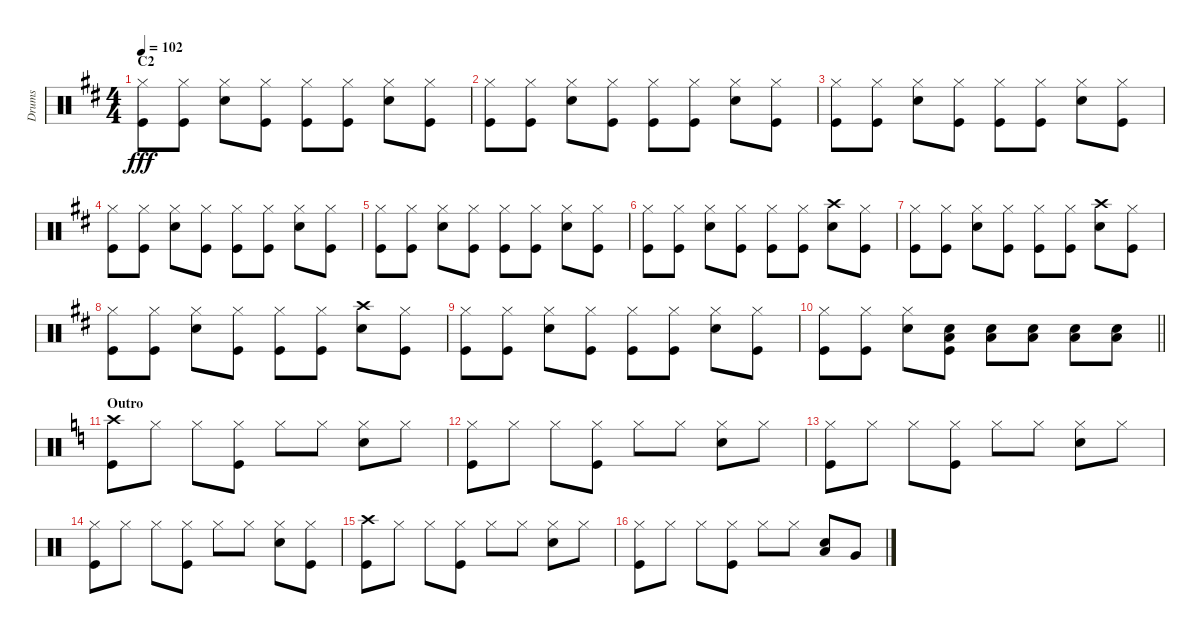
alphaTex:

\track ("Drums" "Drums") {instrument percussion}
\staff {score}
\articulation defaults
\ts (4 4)
\section ("" "C2")
\tempo 102
\clef neutral
\ks d
("Hi-Hat (closed)" "Kick (hit)").8{dy fff} ("Hi-Hat (closed)" "Kick (hit)").8 ("Hi-Hat (closed)" "Snare (hit) 2").8 ("Hi-Hat (closed)" "Kick (hit)").8 ("Hi-Hat (closed)" "Kick (hit)").8 ("Hi-Hat (closed)" "Kick (hit)").8 ("Hi-Hat (closed)" "Snare (hit) 2").8 ("Hi-Hat (closed)" "Kick (hit)").8 |
("Hi-Hat (closed)" "Kick (hit)").8 ("Hi-Hat (closed)" "Kick (hit)").8 ("Hi-Hat (closed)" "Snare (hit) 2").8 ("Hi-Hat (closed)" "Kick (hit)").8 ("Hi-Hat (closed)" "Kick (hit)").8 ("Hi-Hat (closed)" "Kick (hit)").8 ("Hi-Hat (closed)" "Snare (hit) 2").8 ("Hi-Hat (closed)" "Kick (hit)").8 |
("Hi-Hat (closed)" "Kick (hit)").8 ("Hi-Hat (closed)" "Kick (hit)").8 ("Hi-Hat (closed)" "Snare (hit) 2").8 ("Hi-Hat (closed)" "Kick (hit)").8 ("Hi-Hat (closed)" "Kick (hit)").8 ("Hi-Hat (closed)" "Kick (hit)").8 ("Hi-Hat (closed)" "Snare (hit) 2").8 ("Hi-Hat (closed)" "Kick (hit)").8 |
("Hi-Hat (closed)" "Kick (hit)").8 ("Hi-Hat (closed)" "Kick (hit)").8 ("Hi-Hat (closed)" "Snare (hit) 2").8 ("Hi-Hat (closed)" "Kick (hit)").8 ("Hi-Hat (closed)" "Kick (hit)").8 ("Hi-Hat (closed)" "Kick (hit)").8 ("Hi-Hat (closed)" "Snare (hit) 2").8 ("Hi-Hat (closed)" "Kick (hit)").8 |
("Hi-Hat (closed)" "Kick (hit)").8 ("Hi-Hat (closed)" "Kick (hit)").8 ("Hi-Hat (closed)" "Snare (hit) 2").8 ("Hi-Hat (closed)" "Kick (hit)").8 ("Hi-Hat (closed)" "Kick (hit)").8 ("Hi-Hat (closed)" "Kick (hit)").8 ("Hi-Hat (closed)" "Snare (hit) 2").8 ("Hi-Hat (closed)" "Kick (hit)").8 |
("Hi-Hat (closed)" "Kick (hit)").8 ("Hi-Hat (closed)" "Kick (hit)").8 ("Hi-Hat (closed)" "Snare (hit) 2").8 ("Hi-Hat (closed)" "Kick (hit)").8 ("Hi-Hat (closed)" "Kick (hit)").8 ("Hi-Hat (closed)" "Kick (hit)").8 ("Crash high (hit)" "Snare (hit) 2").8 ("Hi-Hat (closed)" "Kick (hit)").8 |
("Hi-Hat (closed)" "Kick (hit)").8 ("Hi-Hat (closed)" "Kick (hit)").8 ("Hi-Hat (closed)" "Snare (hit) 2").8 ("Hi-Hat (closed)" "Kick (hit)").8 ("Hi-Hat (closed)" "Kick (hit)").8 ("Hi-Hat (closed)" "Kick (hit)").8 ("Crash high (hit)" "Snare (hit) 2").8 ("Hi-Hat (closed)" "Kick (hit)").8 |
("Hi-Hat (closed)" "Kick (hit)").8 ("Hi-Hat (closed)" "Kick (hit)").8 ("Hi-Hat (closed)" "Snare (hit) 2").8 ("Hi-Hat (closed)" "Kick (hit)").8 ("Hi-Hat (closed)" "Kick (hit)").8 ("Hi-Hat (closed)" "Kick (hit)").8 ("Crash high (hit)" "Snare (hit) 2").8 ("Hi-Hat (closed)" "Kick (hit)").8 |
("Hi-Hat (closed)" "Kick (hit)").8 ("Hi-Hat (closed)" "Kick (hit)").8 ("Hi-Hat (closed)" "Snare (hit) 2").8 ("Hi-Hat (closed)" "Kick (hit)").8 ("Hi-Hat (closed)" "Kick (hit)").8 ("Hi-Hat (closed)" "Kick (hit)").8 ("Hi-Hat (closed)" "Snare (hit) 2").8 ("Hi-Hat (closed)" "Kick (hit)").8 |
\barLineRight lightlight
("Hi-Hat (closed)" "Kick (hit)").8 ("Hi-Hat (closed)" "Kick (hit)").8 ("Hi-Hat (closed)" "Snare (hit) 2").8 ("Low Tom (hit)" "Snare (hit) 2" "Kick (hit)").8 ("Low Tom (hit)" "Snare (hit) 2").8 ("Low Tom (hit)" "Snare (hit) 2").8 ("Low Tom (hit)" "Snare (hit) 2").8 ("Low Tom (hit)" "Snare (hit) 2").8 |
\section ("" "Outro")
\ks c
("Crash high (hit)" "Kick (hit)").8 "Hi-Hat (closed)".8 "Hi-Hat (closed)".8 ("Hi-Hat (closed)" "Kick (hit)").8 "Hi-Hat (closed)".8 "Hi-Hat (closed)".8 ("Hi-Hat (closed)" "Snare (hit) 2").8 "Hi-Hat (closed)".8 |
("Hi-Hat (closed)" "Kick (hit)").8 "Hi-Hat (closed)".8 "Hi-Hat (closed)".8 ("Hi-Hat (closed)" "Kick (hit)").8 "Hi-Hat (closed)".8 "Hi-Hat (closed)".8 ("Hi-Hat (closed)" "Snare (hit) 2").8 "Hi-Hat (closed)".8 |
("Hi-Hat (closed)" "Kick (hit)").8 "Hi-Hat (closed)".8 "Hi-Hat (closed)".8 ("Hi-Hat (closed)" "Kick (hit)").8 "Hi-Hat (closed)".8 "Hi-Hat (closed)".8 ("Hi-Hat (closed)" "Snare (hit) 2").8 "Hi-Hat (closed)".8 |
("Hi-Hat (closed)" "Kick (hit)").8 "Hi-Hat (closed)".8 "Hi-Hat (closed)".8 ("Hi-Hat (closed)" "Kick (hit)").8 "Hi-Hat (closed)".8 "Hi-Hat (closed)".8 ("Hi-Hat (closed)" "Snare (hit) 2").8 ("Hi-Hat (closed)" "Kick (hit)").8 |
("Crash high (hit)" "Kick (hit)").8 "Hi-Hat (closed)".8 "Hi-Hat (closed)".8 ("Hi-Hat (closed)" "Kick (hit)").8 "Hi-Hat (closed)".8 "Hi-Hat (closed)".8 ("Hi-Hat (closed)" "Snare (hit) 2").8 "Hi-Hat (closed)".8 |
("Hi-Hat (closed)" "Kick (hit)").8 "Hi-Hat (closed)".8 "Hi-Hat (closed)".8 ("Hi-Hat (closed)" "Kick (hit)").8 "Hi-Hat (closed)".8 "Hi-Hat (closed)".8 ("Low Tom (hit)" "Snare (hit) 2").8 "Very Low Tom (hit)".8
